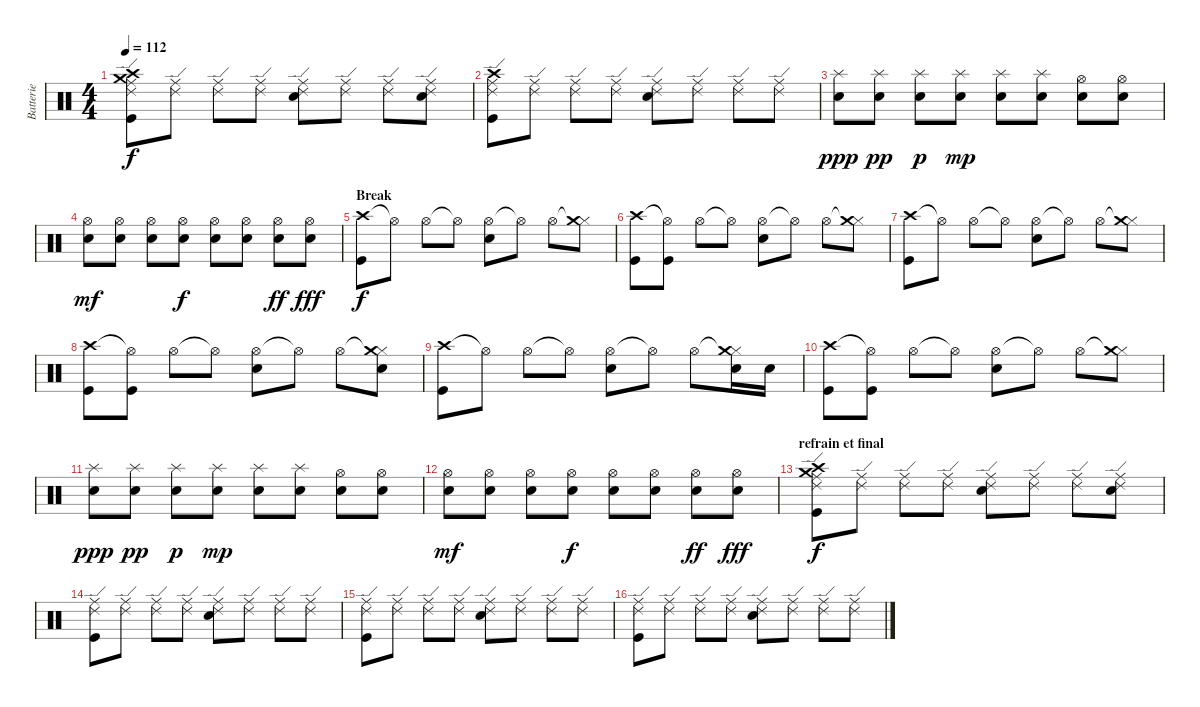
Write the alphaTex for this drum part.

\track ("Batterie" "Batterie") {instrument percussion}
\staff {score}
\articulation defaults
\ts (4 4)
\tempo 112
\clef neutral
\ks c
("Crash high (hit)" "Crash medium (hit)" "Ride (middle)" "Ride (edge) 2" "Kick (hit)").8{dy f} ("Ride (middle)" "Ride (edge) 2").8 ("Ride (middle)" "Ride (edge) 2").8 ("Ride (middle)" "Ride (edge) 2").8 ("Ride (middle)" "Ride (edge) 2" "Snare (hit) 2").8 ("Ride (middle)" "Ride (edge) 2").8 ("Ride (middle)" "Ride (edge) 2").8 ("Ride (middle)" "Ride (edge) 2" "Snare (hit) 2").8 |
("Ride (middle)" "Crash high (hit)" "Ride (edge) 2" "Kick (hit)").8 ("Ride (middle)" "Ride (edge) 2").8 ("Ride (middle)" "Ride (edge) 2").8 ("Ride (middle)" "Ride (edge) 2").8 ("Ride (middle)" "Ride (edge) 2" "Snare (hit) 2").8 ("Ride (middle)" "Ride (edge) 2").8 ("Ride (middle)" "Ride (edge) 2").8 ("Ride (middle)" "Ride (edge) 2").8 |
("Splash (hit)" "Snare (hit) 2").8{dy ppp} ("Splash (hit)" "Snare (hit) 2").8{dy pp} ("Splash (hit)" "Snare (hit) 2").8{dy p} ("Splash (hit)" "Snare (hit) 2").8{dy mp} ("Splash (hit)" "Snare (hit) 2").8 ("Splash (hit)" "Snare (hit) 2").8 ("Hi-Hat (open)" "Snare (hit) 2").8 ("Hi-Hat (open)" "Snare (hit) 2").8 |
("Hi-Hat (open)" "Snare (hit) 2").8{dy mf} ("Hi-Hat (open)" "Snare (hit) 2").8 ("Hi-Hat (open)" "Snare (hit) 2").8 ("Hi-Hat (open)" "Snare (hit) 2").8{dy f} ("Hi-Hat (open)" "Snare (hit) 2").8 ("Hi-Hat (open)" "Snare (hit) 2").8 ("Hi-Hat (open)" "Snare (hit) 2").8{dy ff} ("Hi-Hat (open)" "Snare (hit) 2").8{dy fff} |
\section ("" "Break")
("Crash high (hit)" "Kick (hit)").8{dy f} "Hi-Hat (open)"{t}.8 "Hi-Hat (open)".8 "Hi-Hat (open)"{t}.8 ("Hi-Hat (open)" "Snare (hit) 2").8 "Hi-Hat (open)"{t}.8 "Hi-Hat (open)".8 ("Hi-Hat (closed)"{t} "Crash medium (hit)").8 |
("Crash high (hit)" "Kick (hit)").8 ("Hi-Hat (open)"{t} "Kick (hit)").8 "Hi-Hat (open)".8 "Hi-Hat (open)"{t}.8 ("Hi-Hat (open)" "Snare (hit) 2").8 "Hi-Hat (open)"{t}.8 "Hi-Hat (open)".8 ("Hi-Hat (closed)"{t} "Crash medium (hit)").8 |
("Crash high (hit)" "Kick (hit)").8 "Hi-Hat (open)"{t}.8 "Hi-Hat (open)".8 "Hi-Hat (open)"{t}.8 ("Hi-Hat (open)" "Snare (hit) 2").8 "Hi-Hat (open)"{t}.8 "Hi-Hat (open)".8 ("Hi-Hat (closed)"{t} "Crash medium (hit)").8 |
("Crash high (hit)" "Kick (hit)").8 ("Hi-Hat (open)"{t} "Kick (hit)").8 "Hi-Hat (open)".8 "Hi-Hat (open)"{t}.8 ("Hi-Hat (open)" "Snare (hit) 2").8 "Hi-Hat (open)"{t}.8 "Hi-Hat (open)".8 ("Hi-Hat (closed)"{t} "Crash medium (hit)" "Snare (hit) 2").8 |
("Crash high (hit)" "Kick (hit)").8 "Hi-Hat (open)"{t}.8 "Hi-Hat (open)".8 "Hi-Hat (open)"{t}.8 ("Hi-Hat (open)" "Snare (hit) 2").8 "Hi-Hat (open)"{t}.8 "Hi-Hat (open)".8 ("Hi-Hat (closed)"{t} "Crash medium (hit)" "Snare (hit) 2").16 "Snare (hit) 2".16 |
("Crash high (hit)" "Kick (hit)").8 ("Hi-Hat (open)"{t} "Kick (hit)").8 "Hi-Hat (open)".8 "Hi-Hat (open)"{t}.8 ("Hi-Hat (open)" "Snare (hit) 2").8 "Hi-Hat (open)"{t}.8 "Hi-Hat (open)".8 ("Hi-Hat (closed)"{t} "Crash medium (hit)").8 |
("Splash (hit)" "Snare (hit) 2").8{dy ppp} ("Splash (hit)" "Snare (hit) 2").8{dy pp} ("Splash (hit)" "Snare (hit) 2").8{dy p} ("Splash (hit)" "Snare (hit) 2").8{dy mp} ("Splash (hit)" "Snare (hit) 2").8 ("Splash (hit)" "Snare (hit) 2").8 ("Hi-Hat (open)" "Snare (hit) 2").8 ("Hi-Hat (open)" "Snare (hit) 2").8 |
("Hi-Hat (open)" "Snare (hit) 2").8{dy mf} ("Hi-Hat (open)" "Snare (hit) 2").8 ("Hi-Hat (open)" "Snare (hit) 2").8 ("Hi-Hat (open)" "Snare (hit) 2").8{dy f} ("Hi-Hat (open)" "Snare (hit) 2").8 ("Hi-Hat (open)" "Snare (hit) 2").8 ("Hi-Hat (open)" "Snare (hit) 2").8{dy ff} ("Hi-Hat (open)" "Snare (hit) 2").8{dy fff} |
\section ("" "refrain et final")
("Crash high (hit)" "Crash medium (hit)" "Ride (middle)" "Ride (edge) 2" "Kick (hit)").8{dy f} ("Ride (middle)" "Ride (edge) 2").8 ("Ride (middle)" "Ride (edge) 2").8 ("Ride (middle)" "Ride (edge) 2").8 ("Ride (middle)" "Ride (edge) 2" "Snare (hit) 2").8 ("Ride (middle)" "Ride (edge) 2").8 ("Ride (middle)" "Ride (edge) 2").8 ("Ride (middle)" "Ride (edge) 2" "Snare (hit) 2").8 |
("Ride (middle)" "Ride (edge) 2" "Kick (hit)").8 ("Ride (middle)" "Ride (edge) 2").8 ("Ride (middle)" "Ride (edge) 2").8 ("Ride (middle)" "Ride (edge) 2").8 ("Ride (middle)" "Ride (edge) 2" "Snare (hit) 2").8 ("Ride (middle)" "Ride (edge) 2").8 ("Ride (middle)" "Ride (edge) 2").8 ("Ride (middle)" "Ride (edge) 2").8 |
("Ride (middle)" "Ride (edge) 2" "Kick (hit)").8 ("Ride (middle)" "Ride (edge) 2").8 ("Ride (middle)" "Ride (edge) 2").8 ("Ride (middle)" "Ride (edge) 2").8 ("Ride (middle)" "Ride (edge) 2" "Snare (hit) 2").8 ("Ride (middle)" "Ride (edge) 2").8 ("Ride (middle)" "Ride (edge) 2").8 ("Ride (middle)" "Ride (edge) 2").8 |
("Ride (middle)" "Ride (edge) 2" "Kick (hit)").8 ("Ride (middle)" "Ride (edge) 2").8 ("Ride (middle)" "Ride (edge) 2").8 ("Ride (middle)" "Ride (edge) 2").8 ("Ride (middle)" "Ride (edge) 2" "Snare (hit) 2").8 ("Ride (middle)" "Ride (edge) 2").8 ("Ride (middle)" "Ride (edge) 2").8 ("Ride (middle)" "Ride (edge) 2").8
